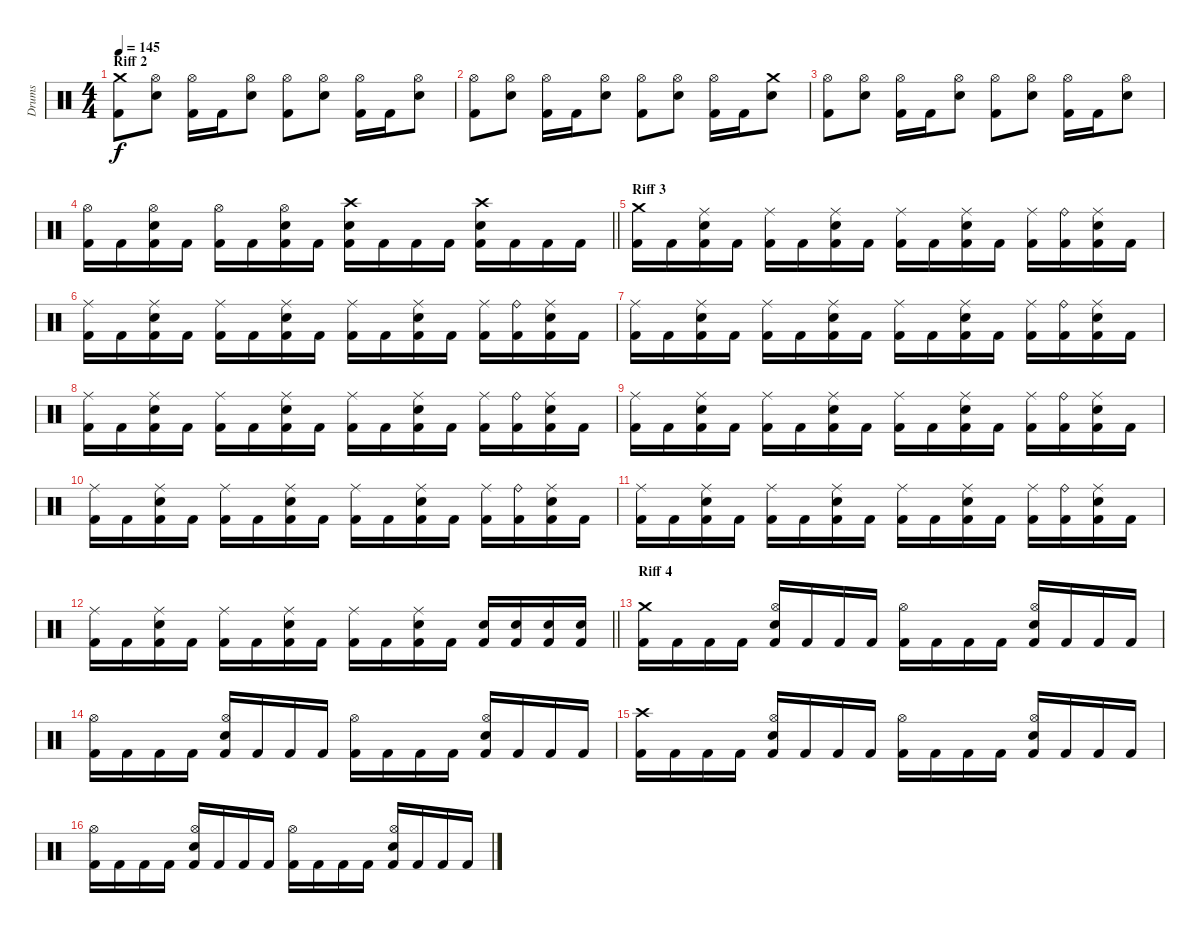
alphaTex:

\track ("Drums" "Drums") {instrument percussion}
\staff {score}
\articulation defaults
\ts (4 4)
\section ("" "Riff 2")
\tempo 145
\clef neutral
\ks c
("Kick (hit) 2" "Crash medium (hit)").8{dy f} ("Hi-Hat (open)" "Electric Snare (hit)").8 ("Kick (hit) 2" "Hi-Hat (open)").16 "Kick (hit) 2".16 ("Electric Snare (hit)" "Hi-Hat (open)").8 ("Kick (hit) 2" "Hi-Hat (open)").8 ("Hi-Hat (open)" "Electric Snare (hit)").8 ("Kick (hit) 2" "Hi-Hat (open)").16 "Kick (hit) 2".16 ("Electric Snare (hit)" "Hi-Hat (open)").8 |
("Kick (hit) 2" "Hi-Hat (open)").8 ("Hi-Hat (open)" "Electric Snare (hit)").8 ("Kick (hit) 2" "Hi-Hat (open)").16 "Kick (hit) 2".16 ("Electric Snare (hit)" "Hi-Hat (open)").8 ("Kick (hit) 2" "Hi-Hat (open)").8 ("Hi-Hat (open)" "Electric Snare (hit)").8 ("Kick (hit) 2" "Hi-Hat (open)").16 "Kick (hit) 2".16 ("Electric Snare (hit)" "Crash medium (hit)").8 |
("Kick (hit) 2" "Hi-Hat (open)").8 ("Hi-Hat (open)" "Electric Snare (hit)").8 ("Kick (hit) 2" "Hi-Hat (open)").16 "Kick (hit) 2".16 ("Electric Snare (hit)" "Hi-Hat (open)").8 ("Kick (hit) 2" "Hi-Hat (open)").8 ("Hi-Hat (open)" "Electric Snare (hit)").8 ("Kick (hit) 2" "Hi-Hat (open)").16 "Kick (hit) 2".16 ("Electric Snare (hit)" "Hi-Hat (open)").8 |
\barLineRight lightlight
("Hi-Hat (open)" "Kick (hit) 2").16 "Kick (hit) 2".16 ("Hi-Hat (open)" "Kick (hit) 2" "Electric Snare (hit)").16 "Kick (hit) 2".16 ("Hi-Hat (open)" "Kick (hit) 2").16 "Kick (hit) 2".16 ("Hi-Hat (open)" "Kick (hit) 2" "Electric Snare (hit)").16 "Kick (hit) 2".16 ("Electric Snare (hit)" "Kick (hit) 2" "Crash high (hit)").16 "Kick (hit) 2".16 "Kick (hit) 2".16 "Kick (hit) 2".16 ("Electric Snare (hit)" "Kick (hit) 2" "Crash high (hit)").16 "Kick (hit) 2".16 "Kick (hit) 2".16 "Kick (hit) 2".16 |
\section ("" "Riff 3")
("Crash medium (hit)" "Kick (hit) 2").16 "Kick (hit) 2".16 ("Ride (middle)" "Electric Snare (hit)" "Kick (hit) 2").16 "Kick (hit) 2".16 ("Ride (middle)" "Kick (hit) 2").16 "Kick (hit) 2".16 ("Ride (middle)" "Electric Snare (hit)" "Kick (hit) 2").16 "Kick (hit) 2".16 ("Ride (middle)" "Kick (hit) 2").16 "Kick (hit) 2".16 ("Ride (middle)" "Electric Snare (hit)" "Kick (hit) 2").16 "Kick (hit) 2".16 ("Ride (middle)" "Kick (hit) 2").16 ("Ride (bell)" "Kick (hit) 2").16 ("Ride (middle)" "Electric Snare (hit)" "Kick (hit) 2").16 "Kick (hit) 2".16 |
("Ride (middle)" "Kick (hit) 2").16 "Kick (hit) 2".16 ("Ride (middle)" "Electric Snare (hit)" "Kick (hit) 2").16 "Kick (hit) 2".16 ("Ride (middle)" "Kick (hit) 2").16 "Kick (hit) 2".16 ("Ride (middle)" "Electric Snare (hit)" "Kick (hit) 2").16 "Kick (hit) 2".16 ("Ride (middle)" "Kick (hit) 2").16 "Kick (hit) 2".16 ("Ride (middle)" "Electric Snare (hit)" "Kick (hit) 2").16 "Kick (hit) 2".16 ("Ride (middle)" "Kick (hit) 2").16 ("Ride (bell)" "Kick (hit) 2").16 ("Ride (middle)" "Electric Snare (hit)" "Kick (hit) 2").16 "Kick (hit) 2".16 |
("Ride (middle)" "Kick (hit) 2").16 "Kick (hit) 2".16 ("Ride (middle)" "Electric Snare (hit)" "Kick (hit) 2").16 "Kick (hit) 2".16 ("Ride (middle)" "Kick (hit) 2").16 "Kick (hit) 2".16 ("Ride (middle)" "Electric Snare (hit)" "Kick (hit) 2").16 "Kick (hit) 2".16 ("Ride (middle)" "Kick (hit) 2").16 "Kick (hit) 2".16 ("Ride (middle)" "Electric Snare (hit)" "Kick (hit) 2").16 "Kick (hit) 2".16 ("Ride (middle)" "Kick (hit) 2").16 ("Ride (bell)" "Kick (hit) 2").16 ("Ride (middle)" "Electric Snare (hit)" "Kick (hit) 2").16 "Kick (hit) 2".16 |
("Ride (middle)" "Kick (hit) 2").16 "Kick (hit) 2".16 ("Ride (middle)" "Electric Snare (hit)" "Kick (hit) 2").16 "Kick (hit) 2".16 ("Ride (middle)" "Kick (hit) 2").16 "Kick (hit) 2".16 ("Ride (middle)" "Electric Snare (hit)" "Kick (hit) 2").16 "Kick (hit) 2".16 ("Ride (middle)" "Kick (hit) 2").16 "Kick (hit) 2".16 ("Ride (middle)" "Electric Snare (hit)" "Kick (hit) 2").16 "Kick (hit) 2".16 ("Ride (middle)" "Kick (hit) 2").16 ("Ride (bell)" "Kick (hit) 2").16 ("Ride (middle)" "Electric Snare (hit)" "Kick (hit) 2").16 "Kick (hit) 2".16 |
("Ride (middle)" "Kick (hit) 2").16 "Kick (hit) 2".16 ("Ride (middle)" "Electric Snare (hit)" "Kick (hit) 2").16 "Kick (hit) 2".16 ("Ride (middle)" "Kick (hit) 2").16 "Kick (hit) 2".16 ("Ride (middle)" "Electric Snare (hit)" "Kick (hit) 2").16 "Kick (hit) 2".16 ("Ride (middle)" "Kick (hit) 2").16 "Kick (hit) 2".16 ("Ride (middle)" "Electric Snare (hit)" "Kick (hit) 2").16 "Kick (hit) 2".16 ("Ride (middle)" "Kick (hit) 2").16 ("Ride (bell)" "Kick (hit) 2").16 ("Ride (middle)" "Electric Snare (hit)" "Kick (hit) 2").16 "Kick (hit) 2".16 |
("Ride (middle)" "Kick (hit) 2").16 "Kick (hit) 2".16 ("Ride (middle)" "Electric Snare (hit)" "Kick (hit) 2").16 "Kick (hit) 2".16 ("Ride (middle)" "Kick (hit) 2").16 "Kick (hit) 2".16 ("Ride (middle)" "Electric Snare (hit)" "Kick (hit) 2").16 "Kick (hit) 2".16 ("Ride (middle)" "Kick (hit) 2").16 "Kick (hit) 2".16 ("Ride (middle)" "Electric Snare (hit)" "Kick (hit) 2").16 "Kick (hit) 2".16 ("Ride (middle)" "Kick (hit) 2").16 ("Ride (bell)" "Kick (hit) 2").16 ("Ride (middle)" "Electric Snare (hit)" "Kick (hit) 2").16 "Kick (hit) 2".16 |
("Ride (middle)" "Kick (hit) 2").16 "Kick (hit) 2".16 ("Ride (middle)" "Electric Snare (hit)" "Kick (hit) 2").16 "Kick (hit) 2".16 ("Ride (middle)" "Kick (hit) 2").16 "Kick (hit) 2".16 ("Ride (middle)" "Electric Snare (hit)" "Kick (hit) 2").16 "Kick (hit) 2".16 ("Ride (middle)" "Kick (hit) 2").16 "Kick (hit) 2".16 ("Ride (middle)" "Electric Snare (hit)" "Kick (hit) 2").16 "Kick (hit) 2".16 ("Ride (middle)" "Kick (hit) 2").16 ("Ride (bell)" "Kick (hit) 2").16 ("Ride (middle)" "Electric Snare (hit)" "Kick (hit) 2").16 "Kick (hit) 2".16 |
\barLineRight lightlight
("Ride (middle)" "Kick (hit) 2").16 "Kick (hit) 2".16 ("Ride (middle)" "Electric Snare (hit)" "Kick (hit) 2").16 "Kick (hit) 2".16 ("Ride (middle)" "Kick (hit) 2").16 "Kick (hit) 2".16 ("Ride (middle)" "Electric Snare (hit)" "Kick (hit) 2").16 "Kick (hit) 2".16 ("Ride (middle)" "Kick (hit) 2").16 "Kick (hit) 2".16 ("Ride (middle)" "Electric Snare (hit)" "Kick (hit) 2").16 "Kick (hit) 2".16 ("Electric Snare (hit)" "Kick (hit) 2").16 ("Electric Snare (hit)" "Kick (hit) 2").16 ("Electric Snare (hit)" "Kick (hit) 2").16 ("Electric Snare (hit)" "Kick (hit) 2").16 |
\section ("" "Riff 4")
("Crash medium (hit)" "Kick (hit) 2").16 "Kick (hit) 2".16 "Kick (hit) 2".16 "Kick (hit) 2".16 ("Hi-Hat (open)" "Electric Snare (hit)" "Kick (hit) 2").16 "Kick (hit) 2".16 "Kick (hit) 2".16 "Kick (hit) 2".16 ("Hi-Hat (open)" "Kick (hit) 2").16 "Kick (hit) 2".16 "Kick (hit) 2".16 "Kick (hit) 2".16 ("Hi-Hat (open)" "Electric Snare (hit)" "Kick (hit) 2").16 "Kick (hit) 2".16 "Kick (hit) 2".16 "Kick (hit) 2".16 |
("Hi-Hat (open)" "Kick (hit) 2").16 "Kick (hit) 2".16 "Kick (hit) 2".16 "Kick (hit) 2".16 ("Hi-Hat (open)" "Electric Snare (hit)" "Kick (hit) 2").16 "Kick (hit) 2".16 "Kick (hit) 2".16 "Kick (hit) 2".16 ("Hi-Hat (open)" "Kick (hit) 2").16 "Kick (hit) 2".16 "Kick (hit) 2".16 "Kick (hit) 2".16 ("Hi-Hat (open)" "Electric Snare (hit)" "Kick (hit) 2").16 "Kick (hit) 2".16 "Kick (hit) 2".16 "Kick (hit) 2".16 |
("Crash high (hit)" "Kick (hit) 2").16 "Kick (hit) 2".16 "Kick (hit) 2".16 "Kick (hit) 2".16 ("Hi-Hat (open)" "Electric Snare (hit)" "Kick (hit) 2").16 "Kick (hit) 2".16 "Kick (hit) 2".16 "Kick (hit) 2".16 ("Hi-Hat (open)" "Kick (hit) 2").16 "Kick (hit) 2".16 "Kick (hit) 2".16 "Kick (hit) 2".16 ("Hi-Hat (open)" "Electric Snare (hit)" "Kick (hit) 2").16 "Kick (hit) 2".16 "Kick (hit) 2".16 "Kick (hit) 2".16 |
("Hi-Hat (open)" "Kick (hit) 2").16 "Kick (hit) 2".16 "Kick (hit) 2".16 "Kick (hit) 2".16 ("Hi-Hat (open)" "Electric Snare (hit)" "Kick (hit) 2").16 "Kick (hit) 2".16 "Kick (hit) 2".16 "Kick (hit) 2".16 ("Hi-Hat (open)" "Kick (hit) 2").16 "Kick (hit) 2".16 "Kick (hit) 2".16 "Kick (hit) 2".16 ("Hi-Hat (open)" "Electric Snare (hit)" "Kick (hit) 2").16 "Kick (hit) 2".16 "Kick (hit) 2".16 "Kick (hit) 2".16
